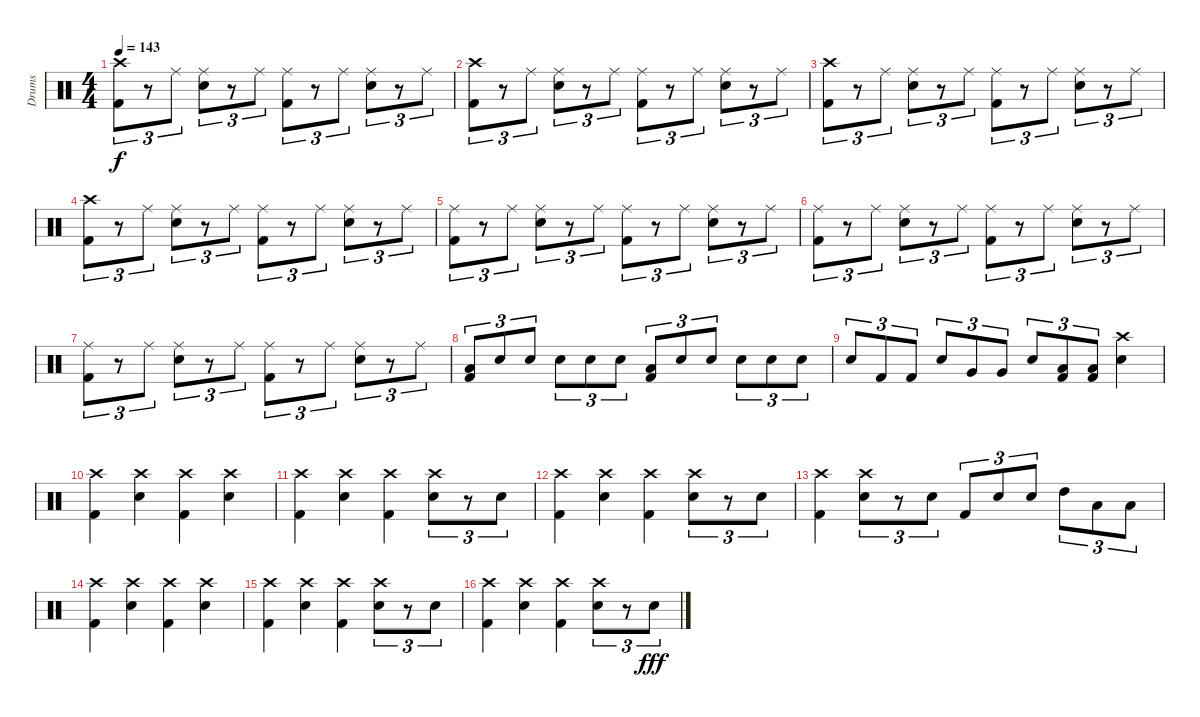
\track ("Drums" "Drums") {instrument percussion}
\staff {score}
\articulation defaults
\ts (4 4)
\tempo 143
\clef neutral
\ks c
("Kick (hit) 2" "Crash high (hit)").8{tu (3 2) dy f} r.8{tu (3 2)} "Ride (middle)".8{tu (3 2)} ("Snare (hit) 2" "Ride (middle)").8{tu (3 2)} r.8{tu (3 2)} "Ride (middle)".8{tu (3 2)} ("Kick (hit) 2" "Ride (middle)").8{tu (3 2)} r.8{tu (3 2)} "Ride (middle)".8{tu (3 2)} ("Snare (hit) 2" "Ride (middle)").8{tu (3 2)} r.8{tu (3 2)} "Ride (middle)".8{tu (3 2)} |
("Kick (hit) 2" "Crash high (hit)").8{tu (3 2)} r.8{tu (3 2)} "Ride (middle)".8{tu (3 2)} ("Snare (hit) 2" "Ride (middle)").8{tu (3 2)} r.8{tu (3 2)} "Ride (middle)".8{tu (3 2)} ("Kick (hit) 2" "Ride (middle)").8{tu (3 2)} r.8{tu (3 2)} "Ride (middle)".8{tu (3 2)} ("Snare (hit) 2" "Ride (middle)").8{tu (3 2)} r.8{tu (3 2)} "Ride (middle)".8{tu (3 2)} |
("Kick (hit) 2" "Crash high (hit)").8{tu (3 2)} r.8{tu (3 2)} "Ride (middle)".8{tu (3 2)} ("Snare (hit) 2" "Ride (middle)").8{tu (3 2)} r.8{tu (3 2)} "Ride (middle)".8{tu (3 2)} ("Kick (hit) 2" "Ride (middle)").8{tu (3 2)} r.8{tu (3 2)} "Ride (middle)".8{tu (3 2)} ("Snare (hit) 2" "Ride (middle)").8{tu (3 2)} r.8{tu (3 2)} "Ride (middle)".8{tu (3 2)} |
("Kick (hit) 2" "Crash high (hit)").8{tu (3 2)} r.8{tu (3 2)} "Ride (middle)".8{tu (3 2)} ("Snare (hit) 2" "Ride (middle)").8{tu (3 2)} r.8{tu (3 2)} "Ride (middle)".8{tu (3 2)} ("Kick (hit) 2" "Ride (middle)").8{tu (3 2)} r.8{tu (3 2)} "Ride (middle)".8{tu (3 2)} ("Snare (hit) 2" "Ride (middle)").8{tu (3 2)} r.8{tu (3 2)} "Ride (middle)".8{tu (3 2)} |
("Kick (hit) 2" "Ride (middle)").8{tu (3 2)} r.8{tu (3 2)} "Ride (middle)".8{tu (3 2)} ("Snare (hit) 2" "Ride (middle)").8{tu (3 2)} r.8{tu (3 2)} "Ride (middle)".8{tu (3 2)} ("Kick (hit) 2" "Ride (middle)").8{tu (3 2)} r.8{tu (3 2)} "Ride (middle)".8{tu (3 2)} ("Snare (hit) 2" "Ride (middle)").8{tu (3 2)} r.8{tu (3 2)} "Ride (middle)".8{tu (3 2)} |
("Kick (hit) 2" "Ride (middle)").8{tu (3 2)} r.8{tu (3 2)} "Ride (middle)".8{tu (3 2)} ("Snare (hit) 2" "Ride (middle)").8{tu (3 2)} r.8{tu (3 2)} "Ride (middle)".8{tu (3 2)} ("Kick (hit) 2" "Ride (middle)").8{tu (3 2)} r.8{tu (3 2)} "Ride (middle)".8{tu (3 2)} ("Snare (hit) 2" "Ride (middle)").8{tu (3 2)} r.8{tu (3 2)} "Ride (middle)".8{tu (3 2)} |
("Kick (hit) 2" "Ride (middle)").8{tu (3 2)} r.8{tu (3 2)} "Ride (middle)".8{tu (3 2)} ("Snare (hit) 2" "Ride (middle)").8{tu (3 2)} r.8{tu (3 2)} "Ride (middle)".8{tu (3 2)} ("Kick (hit) 2" "Ride (middle)").8{tu (3 2)} r.8{tu (3 2)} "Ride (middle)".8{tu (3 2)} ("Snare (hit) 2" "Ride (middle)").8{tu (3 2)} r.8{tu (3 2)} "Ride (middle)".8{tu (3 2)} |
("Low Tom (hit)" "Kick (hit) 2").8{tu (3 2)} "Snare (hit) 2".8{tu (3 2)} "Snare (hit) 2".8{tu (3 2)} "Snare (hit) 2".8{tu (3 2)} "Snare (hit) 2".8{tu (3 2)} "Snare (hit) 2".8{tu (3 2)} ("Low Tom (hit)" "Kick (hit) 2").8{tu (3 2)} "Snare (hit) 2".8{tu (3 2)} "Snare (hit) 2".8{tu (3 2)} "Snare (hit) 2".8{tu (3 2)} "Snare (hit) 2".8{tu (3 2)} "Snare (hit) 2".8{tu (3 2)} |
"Snare (hit) 2".8{tu (3 2)} "Kick (hit) 2".8{tu (3 2)} "Kick (hit) 2".8{tu (3 2)} "Snare (hit) 2".8{tu (3 2)} "Very Low Tom (hit)".8{tu (3 2)} "Very Low Tom (hit)".8{tu (3 2)} "Snare (hit) 2".8{tu (3 2)} ("Low Tom (hit)" "Kick (hit) 2").8{tu (3 2)} ("Low Tom (hit)" "Kick (hit) 2").8{tu (3 2)} ("Crash high (hit)" "Snare (hit) 2").4 |
("Kick (hit) 2" "Crash high (hit)").4 ("Snare (hit) 2" "Crash high (hit)").4 ("Kick (hit) 2" "Crash high (hit)").4 ("Snare (hit) 2" "Crash high (hit)").4 |
("Kick (hit) 2" "Crash high (hit)").4 ("Snare (hit) 2" "Crash high (hit)").4 ("Kick (hit) 2" "Crash high (hit)").4 ("Snare (hit) 2" "Crash high (hit)").8{tu (3 2)} r.8{tu (3 2)} "Snare (hit) 2".8{tu (3 2)} |
("Kick (hit) 2" "Crash high (hit)").4 ("Snare (hit) 2" "Crash high (hit)").4 ("Kick (hit) 2" "Crash high (hit)").4 ("Snare (hit) 2" "Crash high (hit)").8{tu (3 2)} r.8{tu (3 2)} "Snare (hit) 2".8{tu (3 2)} |
("Kick (hit) 2" "Crash high (hit)").4 ("Snare (hit) 2" "Crash high (hit)").8{tu (3 2)} r.8{tu (3 2)} "Snare (hit) 2".8{tu (3 2)} "Kick (hit) 2".8{tu (3 2)} "Snare (hit) 2".8{tu (3 2)} "Snare (hit) 2".8{tu (3 2)} "High Tom (hit)".8{tu (3 2)} "Low Tom (hit)".8{tu (3 2)} "Low Tom (hit)".8{tu (3 2)} |
("Kick (hit) 2" "Crash high (hit)").4 ("Snare (hit) 2" "Crash high (hit)").4 ("Kick (hit) 2" "Crash high (hit)").4 ("Snare (hit) 2" "Crash high (hit)").4 |
("Kick (hit) 2" "Crash high (hit)").4 ("Snare (hit) 2" "Crash high (hit)").4 ("Kick (hit) 2" "Crash high (hit)").4 ("Snare (hit) 2" "Crash high (hit)").8{tu (3 2)} r.8{tu (3 2)} "Snare (hit) 2".8{tu (3 2)} |
("Kick (hit) 2" "Crash high (hit)").4 ("Snare (hit) 2" "Crash high (hit)").4 ("Kick (hit) 2" "Crash high (hit)").4 ("Snare (hit) 2" "Crash high (hit)").8{tu (3 2)} r.8{tu (3 2)} "Snare (hit) 2".8{tu (3 2) dy fff}
